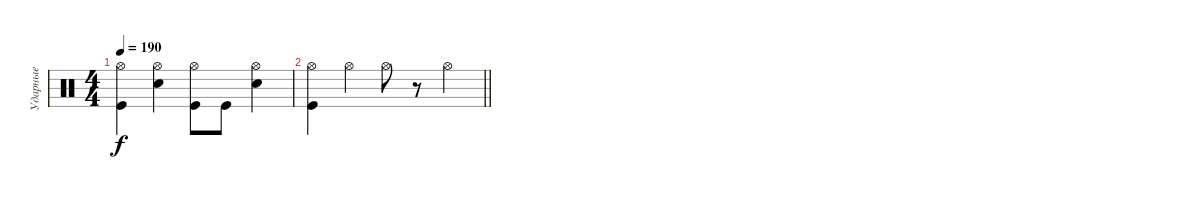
\track ("Ударные" "Ударные") {instrument percussion}
\staff {score}
\articulation defaults
\ts (4 4)
\tempo 190
\clef neutral
\ks c
("Hi-Hat (open)" "Kick (hit)").4{dy f} ("Hi-Hat (open)" "Snare (hit) 2").4 ("Hi-Hat (open)" "Kick (hit)").8 "Kick (hit)".8 ("Hi-Hat (open)" "Snare (hit) 2").4 |
\barLineRight lightlight
("Hi-Hat (open)" "Kick (hit)").4 "Hi-Hat (open)".4 "Hi-Hat (open)".8 r.8 "Hi-Hat (open)".4
